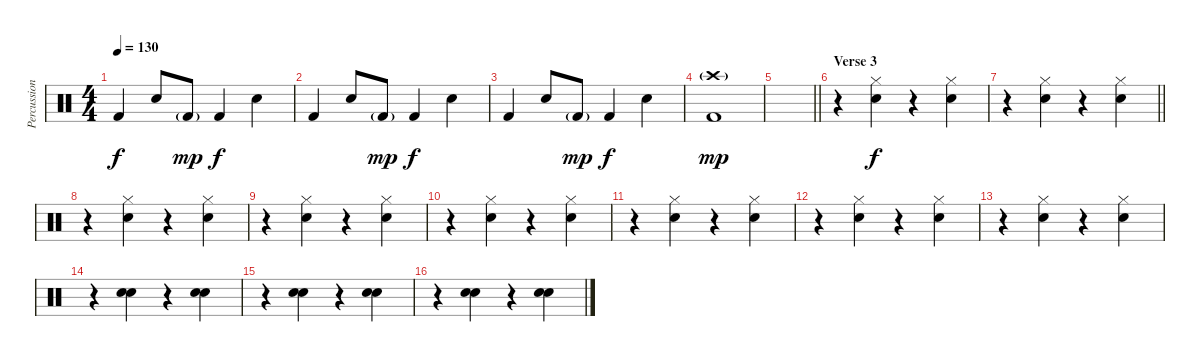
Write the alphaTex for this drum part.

\track ("Percussion" "Percussion") {instrument percussion}
\staff {score}
\articulation defaults
\ts (4 4)
\tempo 130
\clef neutral
\ks c "Kick (hit) 2".4{dy f} "Snare (hit) 2".8 "Kick (hit) 2"{g}.8{dy mp} "Kick (hit) 2".4{dy f} "Snare (hit) 2".4
|
"Kick (hit) 2".4 "Snare (hit) 2".8 "Kick (hit) 2"{g}.8{dy mp} "Kick (hit) 2".4{dy f} "Snare (hit) 2".4 |
"Kick (hit) 2".4 "Snare (hit) 2".8 "Kick (hit) 2"{g}.8{dy mp} "Kick (hit) 2".4{dy f} "Snare (hit) 2".4 |
("Crash high (hit)"{g} "Kick (hit) 2").1{dy mp} |
\barLineRight lightlight
|
\section ("" "Verse 3")
r.4 ("Hi-Hat (closed)" "Hand Clap (hit)").4{dy f} r.4 ("Hi-Hat (closed)" "Hand Clap (hit)").4 |
\barLineRight lightlight
r.4 ("Hi-Hat (closed)" "Hand Clap (hit)").4 r.4 ("Hi-Hat (closed)" "Hand Clap (hit)").4 |
r.4 ("Hi-Hat (closed)" "Hand Clap (hit)").4 r.4 ("Hi-Hat (closed)" "Hand Clap (hit)").4 |
r.4 ("Hi-Hat (closed)" "Hand Clap (hit)").4 r.4 ("Hi-Hat (closed)" "Hand Clap (hit)").4 |
r.4 ("Hi-Hat (closed)" "Hand Clap (hit)").4 r.4 ("Hi-Hat (closed)" "Hand Clap (hit)").4 |
r.4 ("Hi-Hat (closed)" "Hand Clap (hit)").4 r.4 ("Hi-Hat (closed)" "Hand Clap (hit)").4 |
r.4 ("Hi-Hat (closed)" "Hand Clap (hit)").4 r.4 ("Hi-Hat (closed)" "Hand Clap (hit)").4 |
r.4 ("Hi-Hat (closed)" "Hand Clap (hit)").4 r.4 ("Hi-Hat (closed)" "Hand Clap (hit)").4 |
r.4 ("Snare (hit) 2" "Hand Clap (hit)").4 r.4 ("Snare (hit) 2" "Hand Clap (hit)").4 |
r.4 ("Snare (hit) 2" "Hand Clap (hit)").4 r.4 ("Snare (hit) 2" "Hand Clap (hit)").4 |
r.4 ("Snare (hit) 2" "Hand Clap (hit)").4 r.4 ("Snare (hit) 2" "Hand Clap (hit)").4
